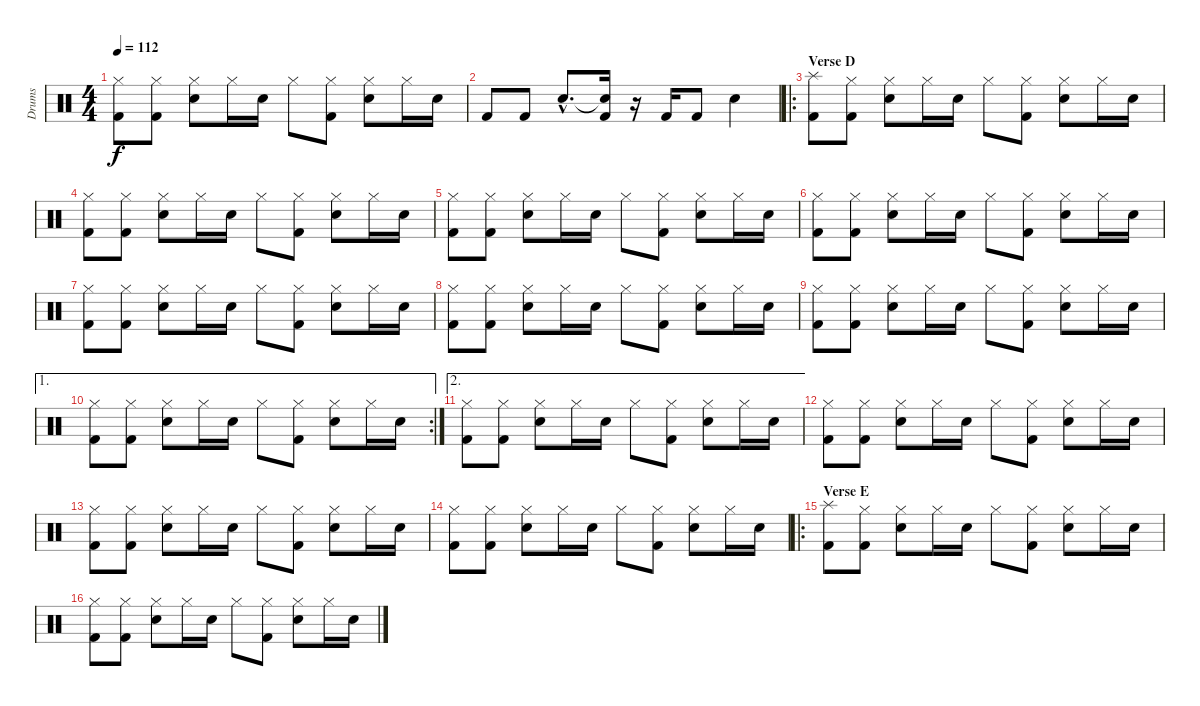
\track ("Drums" "Drums") {instrument percussion}
\staff {score}
\articulation defaults
\ts (4 4)
\tempo 112
\clef neutral
\ks c
("Hi-Hat (closed)" "Kick (hit) 2").8{dy f} ("Hi-Hat (closed)" "Kick (hit) 2").8 ("Hi-Hat (closed)" "Electric Snare (hit)").8 "Hi-Hat (closed)".16 "Electric Snare (hit)".16 "Hi-Hat (closed)".8 ("Hi-Hat (closed)" "Kick (hit) 2").8 ("Hi-Hat (closed)" "Electric Snare (hit)").8 "Hi-Hat (closed)".16 "Electric Snare (hit)".16 |
"Kick (hit) 2".8 "Kick (hit) 2".8 "Electric Snare (hit)"{hac}.8{d} ("Snare (hit)"{t} "Kick (hit) 2").16 r.16 "Kick (hit) 2".16 "Kick (hit) 2".8 "Electric Snare (hit)".4 |
\ro
\section ("" "Verse D")
("Splash (hit)" "Kick (hit) 2").8 ("Hi-Hat (closed)" "Kick (hit) 2").8 ("Hi-Hat (closed)" "Electric Snare (hit)").8 "Hi-Hat (closed)".16 "Electric Snare (hit)".16 "Hi-Hat (closed)".8 ("Hi-Hat (closed)" "Kick (hit) 2").8 ("Hi-Hat (closed)" "Electric Snare (hit)").8 "Hi-Hat (closed)".16 "Electric Snare (hit)".16 |
("Hi-Hat (closed)" "Kick (hit) 2").8 ("Hi-Hat (closed)" "Kick (hit) 2").8 ("Hi-Hat (closed)" "Electric Snare (hit)").8 "Hi-Hat (closed)".16 "Electric Snare (hit)".16 "Hi-Hat (closed)".8 ("Hi-Hat (closed)" "Kick (hit) 2").8 ("Hi-Hat (closed)" "Electric Snare (hit)").8 "Hi-Hat (closed)".16 "Electric Snare (hit)".16 |
("Hi-Hat (closed)" "Kick (hit) 2").8 ("Hi-Hat (closed)" "Kick (hit) 2").8 ("Hi-Hat (closed)" "Electric Snare (hit)").8 "Hi-Hat (closed)".16 "Electric Snare (hit)".16 "Hi-Hat (closed)".8 ("Hi-Hat (closed)" "Kick (hit) 2").8 ("Hi-Hat (closed)" "Electric Snare (hit)").8 "Hi-Hat (closed)".16 "Electric Snare (hit)".16 |
("Hi-Hat (closed)" "Kick (hit) 2").8 ("Hi-Hat (closed)" "Kick (hit) 2").8 ("Hi-Hat (closed)" "Electric Snare (hit)").8 "Hi-Hat (closed)".16 "Electric Snare (hit)".16 "Hi-Hat (closed)".8 ("Hi-Hat (closed)" "Kick (hit) 2").8 ("Hi-Hat (closed)" "Electric Snare (hit)").8 "Hi-Hat (closed)".16 "Electric Snare (hit)".16 |
("Hi-Hat (closed)" "Kick (hit) 2").8 ("Hi-Hat (closed)" "Kick (hit) 2").8 ("Hi-Hat (closed)" "Electric Snare (hit)").8 "Hi-Hat (closed)".16 "Electric Snare (hit)".16 "Hi-Hat (closed)".8 ("Hi-Hat (closed)" "Kick (hit) 2").8 ("Hi-Hat (closed)" "Electric Snare (hit)").8 "Hi-Hat (closed)".16 "Electric Snare (hit)".16 |
("Hi-Hat (closed)" "Kick (hit) 2").8 ("Hi-Hat (closed)" "Kick (hit) 2").8 ("Hi-Hat (closed)" "Electric Snare (hit)").8 "Hi-Hat (closed)".16 "Electric Snare (hit)".16 "Hi-Hat (closed)".8 ("Hi-Hat (closed)" "Kick (hit) 2").8 ("Hi-Hat (closed)" "Electric Snare (hit)").8 "Hi-Hat (closed)".16 "Electric Snare (hit)".16 |
("Hi-Hat (closed)" "Kick (hit) 2").8 ("Hi-Hat (closed)" "Kick (hit) 2").8 ("Hi-Hat (closed)" "Electric Snare (hit)").8 "Hi-Hat (closed)".16 "Electric Snare (hit)".16 "Hi-Hat (closed)".8 ("Hi-Hat (closed)" "Kick (hit) 2").8 ("Hi-Hat (closed)" "Electric Snare (hit)").8 "Hi-Hat (closed)".16 "Electric Snare (hit)".16 |
\ae 1
\rc 2
("Hi-Hat (closed)" "Kick (hit) 2").8 ("Hi-Hat (closed)" "Kick (hit) 2").8 ("Hi-Hat (closed)" "Electric Snare (hit)").8 "Hi-Hat (closed)".16 "Electric Snare (hit)".16 "Hi-Hat (closed)".8 ("Hi-Hat (closed)" "Kick (hit) 2").8 ("Hi-Hat (closed)" "Electric Snare (hit)").8 "Hi-Hat (closed)".16 "Electric Snare (hit)".16 |
\ae 2
("Hi-Hat (closed)" "Kick (hit) 2").8 ("Hi-Hat (closed)" "Kick (hit) 2").8 ("Hi-Hat (closed)" "Electric Snare (hit)").8 "Hi-Hat (closed)".16 "Electric Snare (hit)".16 "Hi-Hat (closed)".8 ("Hi-Hat (closed)" "Kick (hit) 2").8 ("Hi-Hat (closed)" "Electric Snare (hit)").8 "Hi-Hat (closed)".16 "Electric Snare (hit)".16 |
("Hi-Hat (closed)" "Kick (hit) 2").8 ("Hi-Hat (closed)" "Kick (hit) 2").8 ("Hi-Hat (closed)" "Electric Snare (hit)").8 "Hi-Hat (closed)".16 "Electric Snare (hit)".16 "Hi-Hat (closed)".8 ("Hi-Hat (closed)" "Kick (hit) 2").8 ("Hi-Hat (closed)" "Electric Snare (hit)").8 "Hi-Hat (closed)".16 "Electric Snare (hit)".16 |
("Hi-Hat (closed)" "Kick (hit) 2").8 ("Hi-Hat (closed)" "Kick (hit) 2").8 ("Hi-Hat (closed)" "Electric Snare (hit)").8 "Hi-Hat (closed)".16 "Electric Snare (hit)".16 "Hi-Hat (closed)".8 ("Hi-Hat (closed)" "Kick (hit) 2").8 ("Hi-Hat (closed)" "Electric Snare (hit)").8 "Hi-Hat (closed)".16 "Electric Snare (hit)".16 |
("Hi-Hat (closed)" "Kick (hit) 2").8 ("Hi-Hat (closed)" "Kick (hit) 2").8 ("Hi-Hat (closed)" "Electric Snare (hit)").8 "Hi-Hat (closed)".16 "Electric Snare (hit)".16 "Hi-Hat (closed)".8 ("Hi-Hat (closed)" "Kick (hit) 2").8 ("Hi-Hat (closed)" "Electric Snare (hit)").8 "Hi-Hat (closed)".16 "Electric Snare (hit)".16 |
\ro
\section ("" "Verse E")
("Splash (hit)" "Kick (hit) 2").8 ("Hi-Hat (closed)" "Kick (hit) 2").8 ("Hi-Hat (closed)" "Electric Snare (hit)").8 "Hi-Hat (closed)".16 "Electric Snare (hit)".16 "Hi-Hat (closed)".8 ("Hi-Hat (closed)" "Kick (hit) 2").8 ("Hi-Hat (closed)" "Electric Snare (hit)").8 "Hi-Hat (closed)".16 "Electric Snare (hit)".16 |
("Hi-Hat (closed)" "Kick (hit) 2").8 ("Hi-Hat (closed)" "Kick (hit) 2").8 ("Hi-Hat (closed)" "Electric Snare (hit)").8 "Hi-Hat (closed)".16 "Electric Snare (hit)".16 "Hi-Hat (closed)".8 ("Hi-Hat (closed)" "Kick (hit) 2").8 ("Hi-Hat (closed)" "Electric Snare (hit)").8 "Hi-Hat (closed)".16 "Electric Snare (hit)".16
